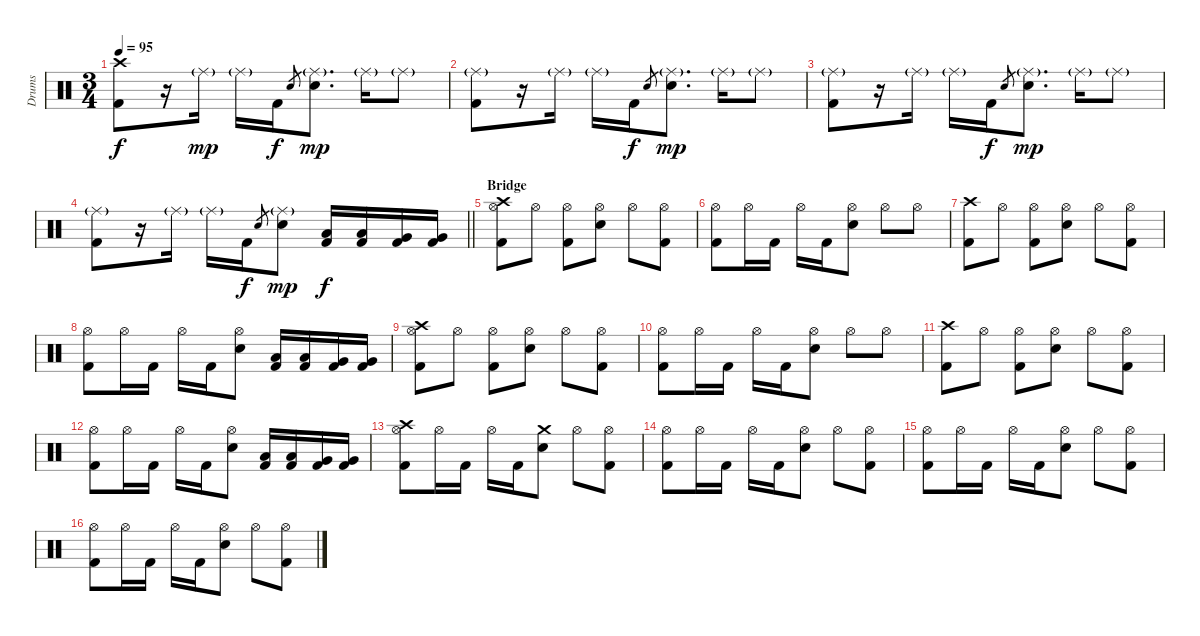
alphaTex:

\track ("Drums" "Drums") {instrument percussion}
\staff {score}
\articulation defaults
\ts (3 4)
\tempo 95
\clef neutral
\ks c
("Crash high (hit)" "Kick (hit) 2").8{dy f} r.16 "Ride (middle)"{g}.16{dy mp} "Ride (middle)"{g}.16 "Kick (hit) 2".16{dy f} "Electric Snare (hit)".8{gr} ("Ride (middle)"{g} "Electric Snare (hit)").8{d dy mp} "Ride (middle)"{g}.16 "Ride (middle)"{g}.8 |
("Ride (middle)"{g} "Kick (hit) 2").8 r.16 "Ride (middle)"{g}.16 "Ride (middle)"{g}.16 "Kick (hit) 2".16{dy f} "Electric Snare (hit)".8{gr} ("Ride (middle)"{g} "Electric Snare (hit)").8{d dy mp} "Ride (middle)"{g}.16 "Ride (middle)"{g}.8 |
("Ride (middle)"{g} "Kick (hit) 2").8 r.16 "Ride (middle)"{g}.16 "Ride (middle)"{g}.16 "Kick (hit) 2".16{dy f} "Electric Snare (hit)".8{gr} ("Ride (middle)"{g} "Electric Snare (hit)").8{d dy mp} "Ride (middle)"{g}.16 "Ride (middle)"{g}.8 |
\barLineRight lightlight
("Ride (middle)"{g} "Kick (hit) 2").8 r.16 "Ride (middle)"{g}.16 "Ride (middle)"{g}.16 "Kick (hit) 2".16{dy f} "Electric Snare (hit)".8{gr} ("Ride (middle)"{g} "Electric Snare (hit)").8{dy mp} ("Low Tom (hit)" "Kick (hit) 2").16{dy f} ("Low Tom (hit)" "Kick (hit) 2").16 ("Very Low Tom (hit)" "Kick (hit) 2").16 ("Very Low Tom (hit)" "Kick (hit) 2").16 |
\section ("" "Bridge")
("Crash high (hit)" "Hi-Hat (open)" "Kick (hit) 2").8 "Hi-Hat (open)".8 ("Hi-Hat (open)" "Kick (hit) 2").8 ("Hi-Hat (open)" "Electric Snare (hit)").8 "Hi-Hat (open)".8 ("Hi-Hat (open)" "Kick (hit) 2").8 |
("Hi-Hat (open)" "Kick (hit) 2").8 "Hi-Hat (open)".16 "Kick (hit) 2".16 "Hi-Hat (open)".16 "Kick (hit) 2".16 ("Hi-Hat (open)" "Electric Snare (hit)").8 "Hi-Hat (open)".8 "Hi-Hat (open)".8 |
("Crash high (hit)" "Kick (hit) 2").8 "Hi-Hat (open)".8 ("Hi-Hat (open)" "Kick (hit) 2").8 ("Hi-Hat (open)" "Electric Snare (hit)").8 "Hi-Hat (open)".8 ("Hi-Hat (open)" "Kick (hit) 2").8 |
("Hi-Hat (open)" "Kick (hit) 2").8 "Hi-Hat (open)".16 "Kick (hit) 2".16 "Hi-Hat (open)".16 "Kick (hit) 2".16 ("Hi-Hat (open)" "Electric Snare (hit)").8 ("Low Tom (hit)" "Kick (hit) 2").16 ("Low Tom (hit)" "Kick (hit) 2").16 ("Very Low Tom (hit)" "Kick (hit) 2").16 ("Very Low Tom (hit)" "Kick (hit) 2").16 |
("Crash high (hit)" "Hi-Hat (open)" "Kick (hit) 2").8 "Hi-Hat (open)".8 ("Hi-Hat (open)" "Kick (hit) 2").8 ("Hi-Hat (open)" "Electric Snare (hit)").8 "Hi-Hat (open)".8 ("Hi-Hat (open)" "Kick (hit) 2").8 |
("Hi-Hat (open)" "Kick (hit) 2").8 "Hi-Hat (open)".16 "Kick (hit) 2".16 "Hi-Hat (open)".16 "Kick (hit) 2".16 ("Hi-Hat (open)" "Electric Snare (hit)").8 "Hi-Hat (open)".8 "Hi-Hat (open)".8 |
("Crash high (hit)" "Kick (hit) 2").8 "Hi-Hat (open)".8 ("Hi-Hat (open)" "Kick (hit) 2").8 ("Hi-Hat (open)" "Electric Snare (hit)").8 "Hi-Hat (open)".8 ("Hi-Hat (open)" "Kick (hit) 2").8 |
("Hi-Hat (open)" "Kick (hit) 2").8 "Hi-Hat (open)".16 "Kick (hit) 2".16 "Hi-Hat (open)".16 "Kick (hit) 2".16 ("Hi-Hat (open)" "Electric Snare (hit)").8 ("Low Tom (hit)" "Kick (hit) 2").16 ("Low Tom (hit)" "Kick (hit) 2").16 ("Very Low Tom (hit)" "Kick (hit) 2").16 ("Very Low Tom (hit)" "Kick (hit) 2").16 |
("Crash high (hit)" "Hi-Hat (open)" "Kick (hit) 2").8 "Hi-Hat (open)".16 "Kick (hit) 2".16 "Hi-Hat (open)".16 "Kick (hit) 2".16 ("Crash medium (hit)" "Electric Snare (hit)").8 "Hi-Hat (open)".8 ("Hi-Hat (open)" "Kick (hit) 2").8 |
("Hi-Hat (open)" "Kick (hit) 2").8 "Hi-Hat (open)".16 "Kick (hit) 2".16 "Hi-Hat (open)".16 "Kick (hit) 2".16 ("Hi-Hat (open)" "Electric Snare (hit)").8 "Hi-Hat (open)".8 ("Hi-Hat (open)" "Kick (hit) 2").8 |
("Hi-Hat (open)" "Kick (hit) 2").8 "Hi-Hat (open)".16 "Kick (hit) 2".16 "Hi-Hat (open)".16 "Kick (hit) 2".16 ("Hi-Hat (open)" "Electric Snare (hit)").8 "Hi-Hat (open)".8 ("Hi-Hat (open)" "Kick (hit) 2").8 |
("Hi-Hat (open)" "Kick (hit) 2").8 "Hi-Hat (open)".16 "Kick (hit) 2".16 "Hi-Hat (open)".16 "Kick (hit) 2".16 ("Hi-Hat (open)" "Electric Snare (hit)").8 "Hi-Hat (open)".8 ("Hi-Hat (open)" "Kick (hit) 2").8
